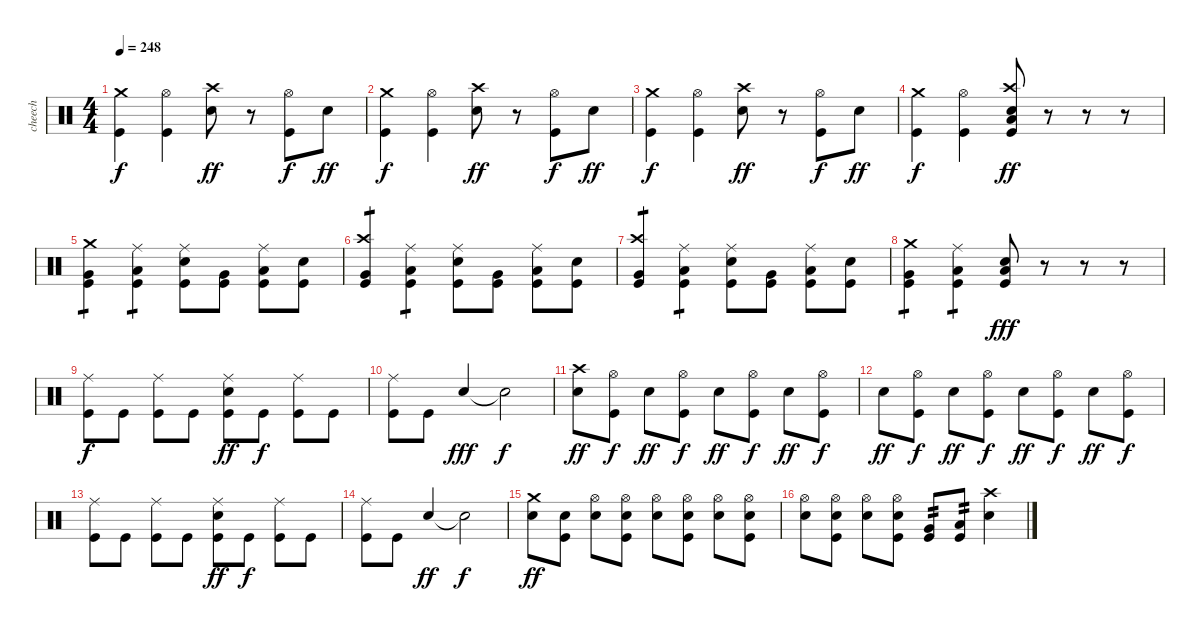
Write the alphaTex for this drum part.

\track ("cheech" "cheech") {instrument percussion}
\staff {score}
\articulation defaults
\ts (4 4)
\tempo 248
\clef neutral
\ks c
("Crash medium (hit)" "Kick (hit)").4{dy f} ("Hi-Hat (open)" "Kick (hit)").4 ("Crash high (hit)" "Electric Snare (hit)").8{dy ff} r.8 ("Hi-Hat (open)" "Kick (hit)").8{dy f} "Electric Snare (hit)".8{dy ff} |
("Crash medium (hit)" "Kick (hit)").4{dy f} ("Hi-Hat (open)" "Kick (hit)").4 ("Crash high (hit)" "Electric Snare (hit)").8{dy ff} r.8 ("Hi-Hat (open)" "Kick (hit)").8{dy f} "Electric Snare (hit)".8{dy ff} |
("Crash medium (hit)" "Kick (hit)").4{dy f} ("Hi-Hat (open)" "Kick (hit)").4 ("Crash high (hit)" "Electric Snare (hit)").8{dy ff} r.8 ("Hi-Hat (open)" "Kick (hit)").8{dy f} "Electric Snare (hit)".8{dy ff} |
("Crash medium (hit)" "Kick (hit)").4{dy f} ("Hi-Hat (open)" "Kick (hit)").4 ("Crash high (hit)" "Electric Snare (hit)" "Low Floor Tom (hit)" "Kick (hit)").8{dy ff} r.8 r.8 r.8 |
("Crash medium (hit)" "Very Low Tom (hit)" "Kick (hit)").4{tp 1} ("Ride (middle)" "Low Floor Tom (hit)" "Kick (hit)").4{tp 1} ("Ride (middle)" "Electric Snare (hit)" "Kick (hit)").8 ("Very Low Tom (hit)" "Kick (hit)").8 ("Ride (middle)" "Low Floor Tom (hit)" "Kick (hit)").8 ("Electric Snare (hit)" "Kick (hit)").8 |
("Crash high (hit)" "Very Low Tom (hit)" "Kick (hit)").4{tp 1} ("Ride (middle)" "Low Floor Tom (hit)" "Kick (hit)").4{tp 1} ("Ride (middle)" "Electric Snare (hit)" "Kick (hit)").8 ("Very Low Tom (hit)" "Kick (hit)").8 ("Ride (middle)" "Low Floor Tom (hit)" "Kick (hit)").8 ("Electric Snare (hit)" "Kick (hit)").8 |
("Crash high (hit)" "Very Low Tom (hit)" "Kick (hit)").4{tp 1} ("Ride (middle)" "Low Floor Tom (hit)" "Kick (hit)").4{tp 1} ("Ride (middle)" "Electric Snare (hit)" "Kick (hit)").8 ("Very Low Tom (hit)" "Kick (hit)").8 ("Ride (middle)" "Low Floor Tom (hit)" "Kick (hit)").8 ("Electric Snare (hit)" "Kick (hit)").8 |
("Crash medium (hit)" "Very Low Tom (hit)" "Kick (hit)").4{tp 1} ("Ride (middle)" "Low Floor Tom (hit)" "Kick (hit)").4{tp 1} ("Electric Snare (hit)" "Low Floor Tom (hit)" "Kick (hit)").8{dy fff} r.8 r.8 r.8 |
("Ride (middle)" "Kick (hit)").8{dy f} "Kick (hit)".8 ("Ride (middle)" "Kick (hit)").8 "Kick (hit)".8 ("Ride (middle)" "Electric Snare (hit)" "Kick (hit)").8{dy ff} "Kick (hit)".8{dy f} ("Ride (middle)" "Kick (hit)").8 "Kick (hit)".8 |
("Ride (middle)" "Kick (hit)").8 "Kick (hit)".8 "Electric Snare (hit)".4{dy fff beam Up} "Electric Snare (hit)"{t}.2{dy f} |
("Crash high (hit)" "Electric Snare (hit)").8{dy ff} ("Hi-Hat (open)" "Kick (hit)").8{dy f} "Electric Snare (hit)".8{dy ff} ("Hi-Hat (open)" "Kick (hit)").8{dy f} "Electric Snare (hit)".8{dy ff} ("Hi-Hat (open)" "Kick (hit)").8{dy f} "Electric Snare (hit)".8{dy ff} ("Hi-Hat (open)" "Kick (hit)").8{dy f} |
"Electric Snare (hit)".8{dy ff} ("Hi-Hat (open)" "Kick (hit)").8{dy f} "Electric Snare (hit)".8{dy ff} ("Hi-Hat (open)" "Kick (hit)").8{dy f} "Electric Snare (hit)".8{dy ff} ("Hi-Hat (open)" "Kick (hit)").8{dy f} "Electric Snare (hit)".8{dy ff} ("Hi-Hat (open)" "Kick (hit)").8{dy f} |
("Ride (middle)" "Kick (hit)").8 "Kick (hit)".8 ("Ride (middle)" "Kick (hit)").8 "Kick (hit)".8 ("Ride (middle)" "Electric Snare (hit)" "Kick (hit)").8{dy ff} "Kick (hit)".8{dy f} ("Ride (middle)" "Kick (hit)").8 "Kick (hit)".8 |
("Ride (middle)" "Kick (hit)").8 "Kick (hit)".8 "Electric Snare (hit)".4{dy ff beam Up} "Electric Snare (hit)"{t}.2{dy f} |
("Crash medium (hit)" "Electric Snare (hit)").8{dy ff} ("Electric Snare (hit)" "Kick (hit)").8 ("Hi-Hat (open)" "Electric Snare (hit)").8 ("Hi-Hat (open)" "Electric Snare (hit)" "Kick (hit)").8 ("Hi-Hat (open)" "Electric Snare (hit)").8 ("Hi-Hat (open)" "Electric Snare (hit)" "Kick (hit)").8 ("Hi-Hat (open)" "Electric Snare (hit)").8 ("Hi-Hat (open)" "Electric Snare (hit)" "Kick (hit)").8 |
("Hi-Hat (open)" "Electric Snare (hit)").8 ("Hi-Hat (open)" "Electric Snare (hit)" "Kick (hit)").8 ("Hi-Hat (open)" "Electric Snare (hit)").8 ("Hi-Hat (open)" "Electric Snare (hit)" "Kick (hit)").8 ("Very Low Tom (hit)" "Kick (hit)").8{tp 2} ("Low Floor Tom (hit)" "Kick (hit)").8{tp 2} ("Crash high (hit)" "Electric Snare (hit)").4
